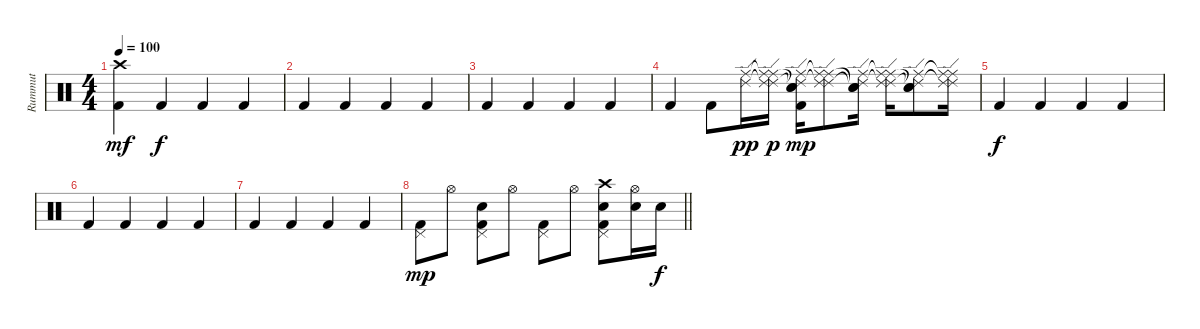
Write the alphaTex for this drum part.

\track ("Rummut" "Rummut") {instrument percussion}
\staff {score}
\articulation defaults
\ts (4 4)
\tempo 100
\clef neutral
\ks c
("Crash high (hit)" "Kick (hit) 2").4{dy mf} "Kick (hit) 2".4{dy f} "Kick (hit) 2".4 "Kick (hit) 2".4 |
"Kick (hit) 2".4 "Kick (hit) 2".4 "Kick (hit) 2".4 "Kick (hit) 2".4 |
"Kick (hit) 2".4 "Kick (hit) 2".4 "Kick (hit) 2".4 "Kick (hit) 2".4 |
"Kick (hit) 2".4 "Kick (hit) 2".8 ("Ride (middle)" "Ride (edge) 2").16{dy pp} ("Ride (middle)"{t} "Ride (edge) 2"{t} "Ride (middle)" "Ride (edge) 2").16{dy p} ("Ride (middle)" "Ride (edge) 2" "Snare (hit)"{t} "Snare (hit)"{t} "Kick (hit) 2").16{dy mp} ("Ride (middle)"{t} "Ride (edge) 2"{t} "Ride (middle)" "Ride (edge) 2").8 ("Ride (middle)" "Ride (edge) 2" "Snare (hit)"{t} "Snare (hit)"{t}).16 ("Ride (middle)"{t} "Ride (edge) 2"{t} "Ride (middle)" "Ride (edge) 2").16 ("Ride (middle)" "Ride (edge) 2" "Snare (hit)"{t} "Snare (hit)"{t}).8 ("Ride (middle)"{t} "Ride (edge) 2"{t} "Ride (middle)" "Ride (edge) 2").16 |
"Kick (hit) 2".4{dy f} "Kick (hit) 2".4 "Kick (hit) 2".4 "Kick (hit) 2".4 |
"Kick (hit) 2".4 "Kick (hit) 2".4 "Kick (hit) 2".4 "Kick (hit) 2".4 |
"Kick (hit) 2".4 "Kick (hit) 2".4 "Kick (hit) 2".4 "Kick (hit) 2".4 |
\barLineRight lightlight
("Pedal Hi-Hat (hit)" "Kick (hit) 2").8{dy mp} "Hi-Hat (open)".8 ("Snare (hit) 2" "Pedal Hi-Hat (hit)" "Kick (hit) 2").8 "Hi-Hat (open)".8 ("Pedal Hi-Hat (hit)" "Kick (hit) 2").8 "Hi-Hat (open)".8 ("Crash high (hit)" "Snare (hit) 2" "Pedal Hi-Hat (hit)" "Kick (hit) 2").8 ("Snare (hit) 2" "Hi-Hat (open)").16 "Snare (hit) 2".16{dy f}
